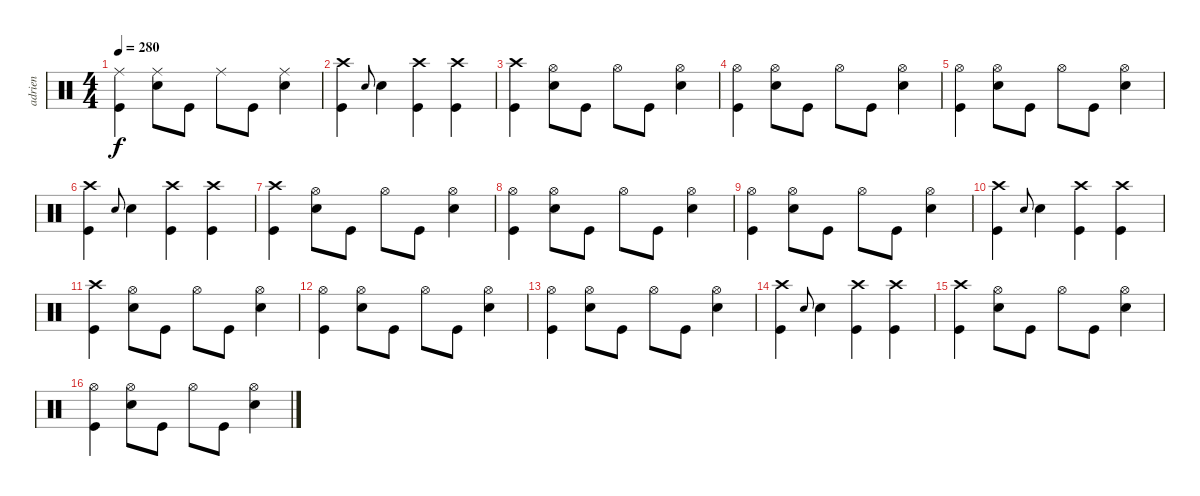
\track ("adrien" "adrien") {instrument percussion}
\staff {score}
\articulation defaults
\ts (4 4)
\tempo 280
\clef neutral
\ks c
("Ride (middle)" "Kick (hit)").4{dy f} ("Ride (middle)" "Snare (hit) 2").8 "Kick (hit)".8 "Ride (middle)".8 "Kick (hit)".8 ("Ride (middle)" "Snare (hit) 2").4 |
("Crash high (hit)" "Kick (hit)").4 "Snare (hit) 2".8{gr onbeat} "Snare (hit) 2".4 ("Crash high (hit)" "Kick (hit)").4 ("Crash high (hit)" "Kick (hit)").4 |
("Crash high (hit)" "Kick (hit)").4 ("Hi-Hat (open)" "Snare (hit) 2").8 "Kick (hit)".8 "Hi-Hat (open)".8 "Kick (hit)".8 ("Hi-Hat (open)" "Snare (hit) 2").4 |
("Hi-Hat (open)" "Kick (hit)").4 ("Hi-Hat (open)" "Snare (hit) 2").8 "Kick (hit)".8 "Hi-Hat (open)".8 "Kick (hit)".8 ("Hi-Hat (open)" "Snare (hit) 2").4 |
("Hi-Hat (open)" "Kick (hit)").4 ("Hi-Hat (open)" "Snare (hit) 2").8 "Kick (hit)".8 "Hi-Hat (open)".8 "Kick (hit)".8 ("Hi-Hat (open)" "Snare (hit) 2").4 |
("Crash high (hit)" "Kick (hit)").4 "Snare (hit) 2".8{gr onbeat} "Snare (hit) 2".4 ("Crash high (hit)" "Kick (hit)").4 ("Crash high (hit)" "Kick (hit)").4 |
("Crash high (hit)" "Kick (hit)").4 ("Hi-Hat (open)" "Snare (hit) 2").8 "Kick (hit)".8 "Hi-Hat (open)".8 "Kick (hit)".8 ("Hi-Hat (open)" "Snare (hit) 2").4 |
("Hi-Hat (open)" "Kick (hit)").4 ("Hi-Hat (open)" "Snare (hit) 2").8 "Kick (hit)".8 "Hi-Hat (open)".8 "Kick (hit)".8 ("Hi-Hat (open)" "Snare (hit) 2").4 |
("Hi-Hat (open)" "Kick (hit)").4 ("Hi-Hat (open)" "Snare (hit) 2").8 "Kick (hit)".8 "Hi-Hat (open)".8 "Kick (hit)".8 ("Hi-Hat (open)" "Snare (hit) 2").4 |
("Crash high (hit)" "Kick (hit)").4 "Snare (hit) 2".8{gr onbeat} "Snare (hit) 2".4 ("Crash high (hit)" "Kick (hit)").4 ("Crash high (hit)" "Kick (hit)").4 |
("Crash high (hit)" "Kick (hit)").4 ("Hi-Hat (open)" "Snare (hit) 2").8 "Kick (hit)".8 "Hi-Hat (open)".8 "Kick (hit)".8 ("Hi-Hat (open)" "Snare (hit) 2").4 |
("Hi-Hat (open)" "Kick (hit)").4 ("Hi-Hat (open)" "Snare (hit) 2").8 "Kick (hit)".8 "Hi-Hat (open)".8 "Kick (hit)".8 ("Hi-Hat (open)" "Snare (hit) 2").4 |
("Hi-Hat (open)" "Kick (hit)").4 ("Hi-Hat (open)" "Snare (hit) 2").8 "Kick (hit)".8 "Hi-Hat (open)".8 "Kick (hit)".8 ("Hi-Hat (open)" "Snare (hit) 2").4 |
("Crash high (hit)" "Kick (hit)").4 "Snare (hit) 2".8{gr onbeat} "Snare (hit) 2".4 ("Crash high (hit)" "Kick (hit)").4 ("Crash high (hit)" "Kick (hit)").4 |
("Crash high (hit)" "Kick (hit)").4 ("Hi-Hat (open)" "Snare (hit) 2").8 "Kick (hit)".8 "Hi-Hat (open)".8 "Kick (hit)".8 ("Hi-Hat (open)" "Snare (hit) 2").4 |
("Hi-Hat (open)" "Kick (hit)").4 ("Hi-Hat (open)" "Snare (hit) 2").8 "Kick (hit)".8 "Hi-Hat (open)".8 "Kick (hit)".8 ("Hi-Hat (open)" "Snare (hit) 2").4
